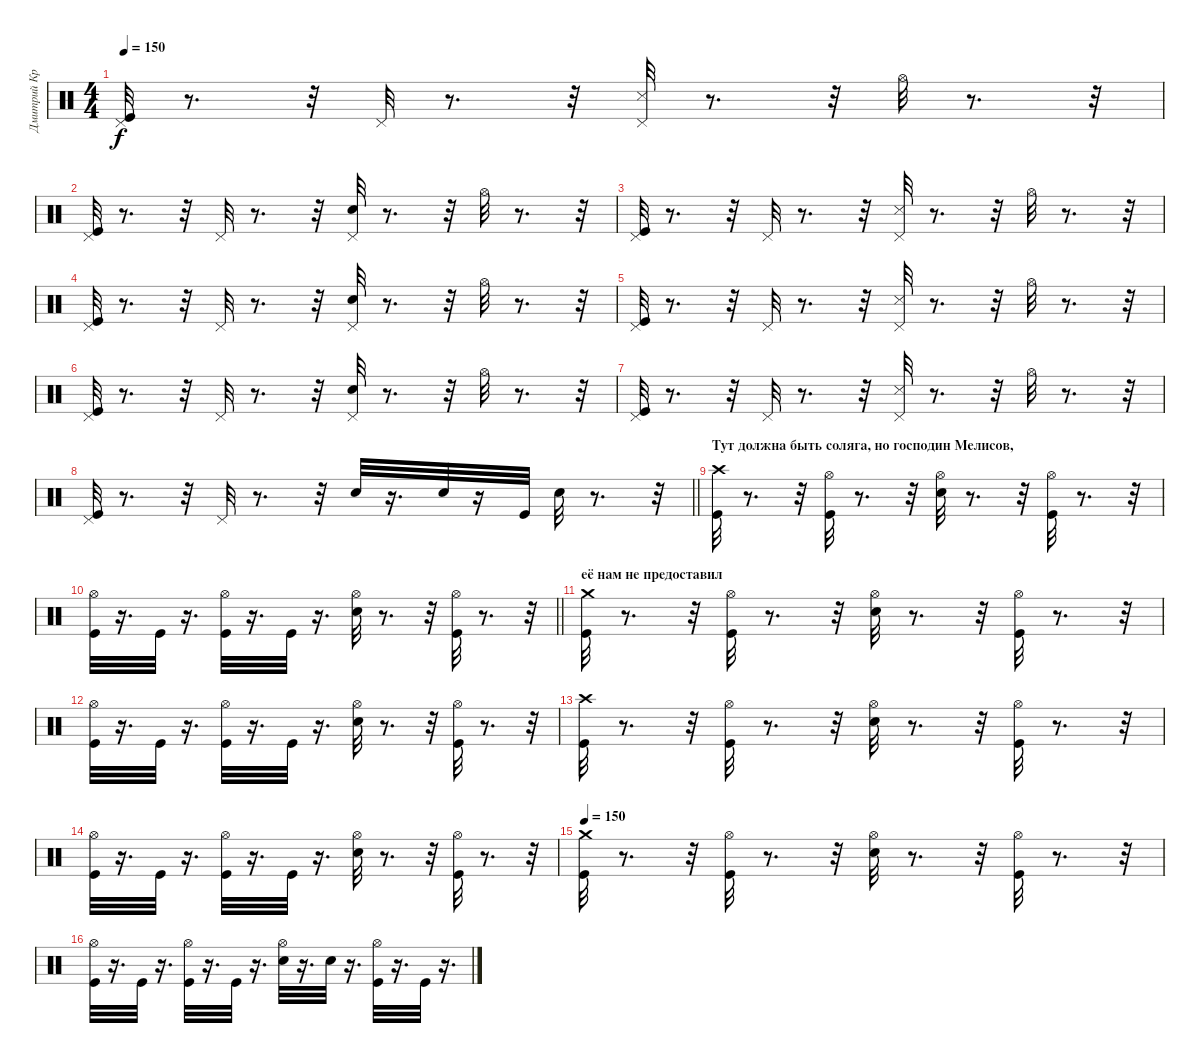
\track ("Дмитрий Кривенков" "Дмитрий Кр") {instrument percussion}
\staff {score}
\articulation defaults
\ts (4 4)
\tempo 150
\clef neutral
\ks c
("Pedal Hi-Hat (hit)" "Kick (hit)").32{dy f} r.8{d} r.32 "Pedal Hi-Hat (hit)".32 r.8{d} r.32 ("Snare (side stick) 3" "Pedal Hi-Hat (hit)").32 r.8{d} r.32 "Hi-Hat (open)".32 r.8{d} r.32 |
("Pedal Hi-Hat (hit)" "Kick (hit)").32 r.8{d} r.32 "Pedal Hi-Hat (hit)".32 r.8{d} r.32 ("Electric Snare (hit)" "Pedal Hi-Hat (hit)").32 r.8{d} r.32 "Hi-Hat (open)".32 r.8{d} r.32 |
("Pedal Hi-Hat (hit)" "Kick (hit)").32 r.8{d} r.32 "Pedal Hi-Hat (hit)".32 r.8{d} r.32 ("Snare (side stick) 3" "Pedal Hi-Hat (hit)").32 r.8{d} r.32 "Hi-Hat (open)".32 r.8{d} r.32 |
("Pedal Hi-Hat (hit)" "Kick (hit)").32 r.8{d} r.32 "Pedal Hi-Hat (hit)".32 r.8{d} r.32 ("Electric Snare (hit)" "Pedal Hi-Hat (hit)").32 r.8{d} r.32 "Hi-Hat (open)".32 r.8{d} r.32 |
("Pedal Hi-Hat (hit)" "Kick (hit)").32 r.8{d} r.32 "Pedal Hi-Hat (hit)".32 r.8{d} r.32 ("Snare (side stick) 3" "Pedal Hi-Hat (hit)").32 r.8{d} r.32 "Hi-Hat (open)".32 r.8{d} r.32 |
("Pedal Hi-Hat (hit)" "Kick (hit)").32 r.8{d} r.32 "Pedal Hi-Hat (hit)".32 r.8{d} r.32 ("Electric Snare (hit)" "Pedal Hi-Hat (hit)").32 r.8{d} r.32 "Hi-Hat (open)".32 r.8{d} r.32 |
("Pedal Hi-Hat (hit)" "Kick (hit)").32 r.8{d} r.32 "Pedal Hi-Hat (hit)".32 r.8{d} r.32 ("Snare (side stick) 3" "Pedal Hi-Hat (hit)").32 r.8{d} r.32 "Hi-Hat (open)".32 r.8{d} r.32 |
\barLineRight lightlight
("Pedal Hi-Hat (hit)" "Kick (hit)").32 r.8{d} r.32 "Pedal Hi-Hat (hit)".32 r.8{d} r.32 "Electric Snare (hit)".32 r.16{d} "Electric Snare (hit)".32 r.16 "Kick (hit)".32 "Electric Snare (hit)".32 r.8{d} r.32 |
\section ("" "Тут должна быть соляга, но господин Мелисов,")
("Kick (hit)" "Crash high (hit)").32 r.8{d} r.32 ("Hi-Hat (open)" "Kick (hit)").32 r.8{d} r.32 ("Hi-Hat (open)" "Electric Snare (hit)").32 r.8{d} r.32 ("Kick (hit)" "Hi-Hat (open)").32 r.8{d} r.32 |
\barLineRight lightlight
("Hi-Hat (open)" "Kick (hit)").32 r.16{d} "Kick (hit)".32 r.16{d} ("Hi-Hat (open)" "Kick (hit)").32 r.16{d} "Kick (hit)".32 r.16{d} ("Electric Snare (hit)" "Hi-Hat (open)").32 r.8{d} r.32 ("Hi-Hat (open)" "Kick (hit)").32 r.8{d} r.32 |
\section ("" "её нам не предоставил")
("Kick (hit)" "Crash medium (hit)").32 r.8{d} r.32 ("Hi-Hat (open)" "Kick (hit)").32 r.8{d} r.32 ("Hi-Hat (open)" "Electric Snare (hit)").32 r.8{d} r.32 ("Kick (hit)" "Hi-Hat (open)").32 r.8{d} r.32 |
("Hi-Hat (open)" "Kick (hit)").32 r.16{d} "Kick (hit)".32 r.16{d} ("Hi-Hat (open)" "Kick (hit)").32 r.16{d} "Kick (hit)".32 r.16{d} ("Electric Snare (hit)" "Hi-Hat (open)").32 r.8{d} r.32 ("Hi-Hat (open)" "Kick (hit)").32 r.8{d} r.32 |
("Kick (hit)" "Crash high (hit)").32 r.8{d} r.32 ("Hi-Hat (open)" "Kick (hit)").32 r.8{d} r.32 ("Hi-Hat (open)" "Electric Snare (hit)").32 r.8{d} r.32 ("Kick (hit)" "Hi-Hat (open)").32 r.8{d} r.32 |
("Hi-Hat (open)" "Kick (hit)").32 r.16{d} "Kick (hit)".32 r.16{d} ("Hi-Hat (open)" "Kick (hit)").32 r.16{d} "Kick (hit)".32 r.16{d} ("Electric Snare (hit)" "Hi-Hat (open)").32 r.8{d} r.32 ("Hi-Hat (open)" "Kick (hit)").32 r.8{d} r.32 |
\tempo 150
("Kick (hit)" "Crash medium (hit)").32 r.8{d} r.32 ("Hi-Hat (open)" "Kick (hit)").32 r.8{d} r.32 ("Hi-Hat (open)" "Electric Snare (hit)").32 r.8{d} r.32 ("Kick (hit)" "Hi-Hat (open)").32 r.8{d} r.32 |
("Hi-Hat (open)" "Kick (hit)").32 r.16{d} "Kick (hit)".32 r.16{d} ("Hi-Hat (open)" "Kick (hit)").32 r.16{d} "Kick (hit)".32 r.16{d} ("Electric Snare (hit)" "Hi-Hat (open)").32 r.16{d} "Electric Snare (hit)".32 r.16{d} ("Hi-Hat (open)" "Kick (hit)").32 r.16{d} "Kick (hit)".32 r.16{d}
